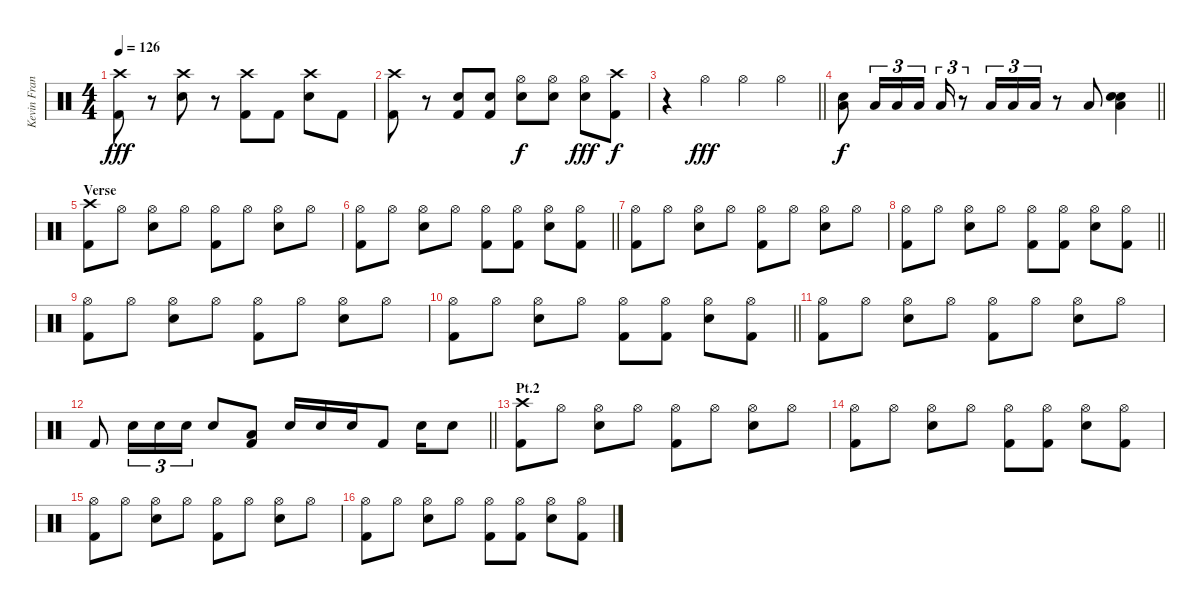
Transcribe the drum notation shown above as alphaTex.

\track ("Kevin Frank" "Kevin Fran") {instrument percussion}
\staff
\articulation defaults
\ts (4 4)
\tempo 126
\clef neutral
\ks c
("Crash high (hit)" "Kick (hit) 2").8{dy fff} r.8 ("Crash high (hit)" "Snare (hit) 2").8 r.8 ("Crash high (hit)" "Kick (hit) 2").8 "Kick (hit) 2".8 ("Crash high (hit)" "Snare (hit) 2").8 "Kick (hit) 2".8 |
("Crash high (hit)" "Kick (hit) 2").8 r.8 ("Snare (hit) 2" "Kick (hit) 2").8 ("Snare (hit) 2" "Kick (hit) 2").8 ("Hi-Hat (open)" "Snare (hit) 2").8{dy f} ("Hi-Hat (open)" "Snare (hit) 2").8 ("Hi-Hat (open)" "Snare (hit) 2").8{dy fff} ("Crash high (hit)" "Kick (hit) 2").8{dy f} |
\barLineRight lightlight
r.4 "Hi-Hat (open)".4{dy fff} "Hi-Hat (open)".4 "Hi-Hat (open)".4 |
\barLineRight lightlight
("Low Tom (hit)" "Snare (hit) 2").8{dy f} "Low Tom (hit)".16{tu (3 2)} "Low Tom (hit)".16{tu (3 2)} "Low Tom (hit)".16{tu (3 2)} "Low Tom (hit)".16{tu (3 2)} r.8{tu (3 2)} "Low Tom (hit)".16{tu (3 2)} "Low Tom (hit)".16{tu (3 2)} "Low Tom (hit)".16{tu (3 2)} r.8 "Low Tom (hit)".8 ("Snare (hit) 2" "Snare (hit) 2" "Low Tom (hit)").4 |
\section ("" "Verse")
("Crash high (hit)" "Kick (hit) 2").8 "Hi-Hat (open)".8 ("Hi-Hat (open)" "Snare (hit) 2").8 "Hi-Hat (open)".8 ("Hi-Hat (open)" "Kick (hit) 2").8 "Hi-Hat (open)".8 ("Hi-Hat (open)" "Snare (hit) 2").8 "Hi-Hat (open)".8 |
\barLineRight lightlight
("Hi-Hat (open)" "Kick (hit) 2").8 "Hi-Hat (open)".8 ("Hi-Hat (open)" "Snare (hit) 2").8 "Hi-Hat (open)".8 ("Hi-Hat (open)" "Kick (hit) 2").8 ("Hi-Hat (open)" "Kick (hit) 2").8 ("Hi-Hat (open)" "Snare (hit) 2").8 ("Hi-Hat (open)" "Kick (hit) 2").8 |
("Hi-Hat (open)" "Kick (hit) 2").8 "Hi-Hat (open)".8 ("Hi-Hat (open)" "Snare (hit) 2").8 "Hi-Hat (open)".8 ("Hi-Hat (open)" "Kick (hit) 2").8 "Hi-Hat (open)".8 ("Hi-Hat (open)" "Snare (hit) 2").8 "Hi-Hat (open)".8 |
\barLineRight lightlight
("Hi-Hat (open)" "Kick (hit) 2").8 "Hi-Hat (open)".8 ("Hi-Hat (open)" "Snare (hit) 2").8 "Hi-Hat (open)".8 ("Hi-Hat (open)" "Kick (hit) 2").8 ("Hi-Hat (open)" "Kick (hit) 2").8 ("Hi-Hat (open)" "Snare (hit) 2").8 ("Hi-Hat (open)" "Kick (hit) 2").8 |
("Hi-Hat (open)" "Kick (hit) 2").8 "Hi-Hat (open)".8 ("Hi-Hat (open)" "Snare (hit) 2").8 "Hi-Hat (open)".8 ("Hi-Hat (open)" "Kick (hit) 2").8 "Hi-Hat (open)".8 ("Hi-Hat (open)" "Snare (hit) 2").8 "Hi-Hat (open)".8 |
\barLineRight lightlight
("Hi-Hat (open)" "Kick (hit) 2").8 "Hi-Hat (open)".8 ("Hi-Hat (open)" "Snare (hit) 2").8 "Hi-Hat (open)".8 ("Hi-Hat (open)" "Kick (hit) 2").8 ("Hi-Hat (open)" "Kick (hit) 2").8 ("Hi-Hat (open)" "Snare (hit) 2").8 ("Hi-Hat (open)" "Kick (hit) 2").8 |
("Hi-Hat (open)" "Kick (hit) 2").8 "Hi-Hat (open)".8 ("Hi-Hat (open)" "Snare (hit) 2").8 "Hi-Hat (open)".8 ("Hi-Hat (open)" "Kick (hit) 2").8 "Hi-Hat (open)".8 ("Hi-Hat (open)" "Snare (hit) 2").8 "Hi-Hat (open)".8 |
\barLineRight lightlight "Kick (hit) 2".8 "Snare (hit) 2".16{tu (3 2)} "Snare (hit) 2".16{tu (3 2)} "Snare (hit) 2".16{tu (3 2)} "Snare (hit) 2".8
("Kick (hit) 2" "Low Tom (hit)").8 "Snare (hit) 2".16 "Snare (hit) 2".16 "Snare (hit) 2".16 "Kick (hit) 2".8 "Snare (hit) 2".16 "Snare (hit) 2".8 |
\section ("" "Pt.2")
("Crash high (hit)" "Kick (hit) 2").8 "Hi-Hat (open)".8 ("Hi-Hat (open)" "Snare (hit) 2").8 "Hi-Hat (open)".8 ("Hi-Hat (open)" "Kick (hit) 2").8 "Hi-Hat (open)".8 ("Hi-Hat (open)" "Snare (hit) 2").8 "Hi-Hat (open)".8 |
("Hi-Hat (open)" "Kick (hit) 2").8 "Hi-Hat (open)".8 ("Hi-Hat (open)" "Snare (hit) 2").8 "Hi-Hat (open)".8 ("Hi-Hat (open)" "Kick (hit) 2").8 ("Hi-Hat (open)" "Kick (hit) 2").8 ("Hi-Hat (open)" "Snare (hit) 2").8 ("Hi-Hat (open)" "Kick (hit) 2").8 |
("Hi-Hat (open)" "Kick (hit) 2").8 "Hi-Hat (open)".8 ("Hi-Hat (open)" "Snare (hit) 2").8 "Hi-Hat (open)".8 ("Hi-Hat (open)" "Kick (hit) 2").8 "Hi-Hat (open)".8 ("Hi-Hat (open)" "Snare (hit) 2").8 "Hi-Hat (open)".8 |
("Hi-Hat (open)" "Kick (hit) 2").8 "Hi-Hat (open)".8 ("Hi-Hat (open)" "Snare (hit) 2").8 "Hi-Hat (open)".8 ("Hi-Hat (open)" "Kick (hit) 2").8 ("Hi-Hat (open)" "Kick (hit) 2").8 ("Hi-Hat (open)" "Snare (hit) 2").8 ("Hi-Hat (open)" "Kick (hit) 2").8
